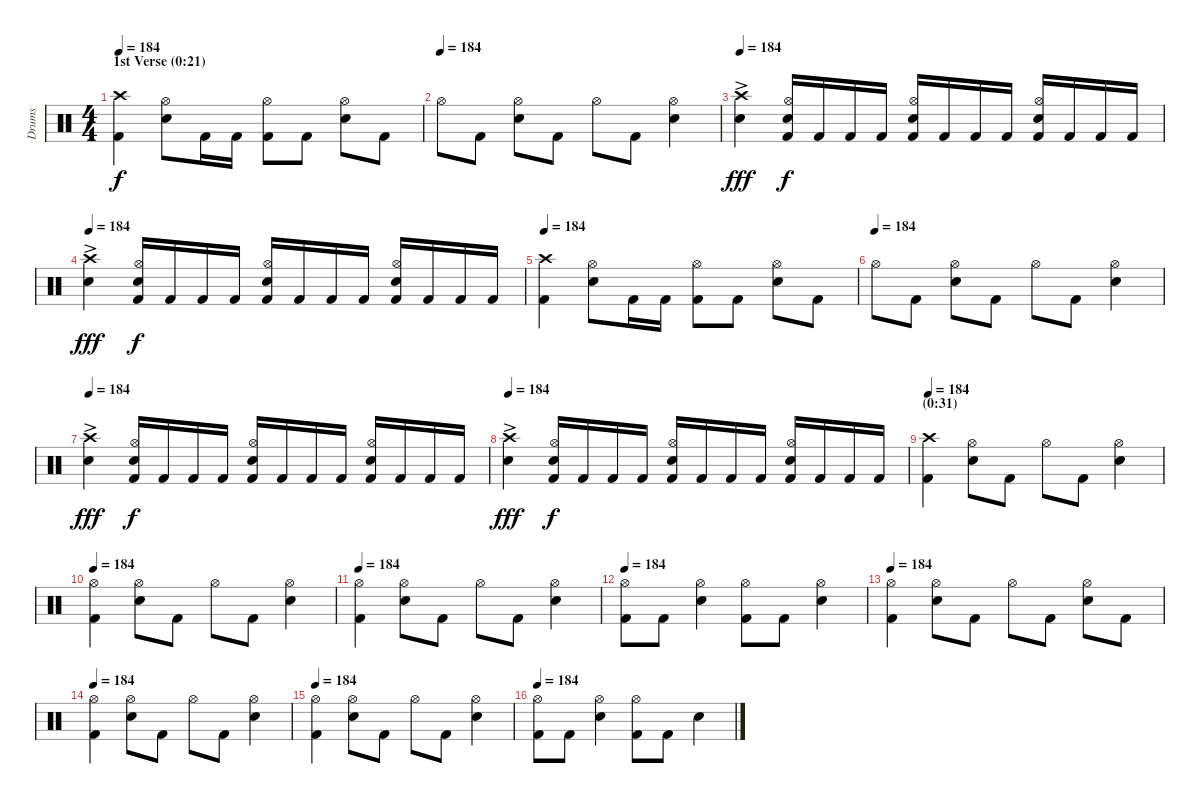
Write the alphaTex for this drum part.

\track ("Drums" "Drums") {instrument percussion}
\staff {score}
\articulation defaults
\ts (4 4)
\section ("" "1st Verse (0:21)")
\tempo 184
\clef neutral
\ks c
("Crash high (hit)" "Kick (hit) 2").4{dy f} ("Hi-Hat (open)" "Snare (hit) 2").8 "Kick (hit) 2".16 "Kick (hit) 2".16 ("Hi-Hat (open)" "Kick (hit) 2").8 "Kick (hit) 2".8 ("Hi-Hat (open)" "Snare (hit) 2").8 "Kick (hit) 2".8 |
\tempo (184)
"Hi-Hat (open)".8 "Kick (hit) 2".8 ("Hi-Hat (open)" "Snare (hit) 2").8 "Kick (hit) 2".8 "Hi-Hat (open)".8 "Kick (hit) 2".8 ("Hi-Hat (open)" "Snare (hit) 2").4 |
\tempo 184
("Crash high (hit)" "Snare (hit) 2"{ac}).4{dy fff} ("Hi-Hat (open)" "Snare (hit) 2" "Kick (hit) 2").16{dy f} "Kick (hit) 2".16 "Kick (hit) 2".16 "Kick (hit) 2".16 ("Hi-Hat (open)" "Snare (hit) 2" "Kick (hit) 2").16 "Kick (hit) 2".16 "Kick (hit) 2".16 "Kick (hit) 2".16 ("Hi-Hat (open)" "Snare (hit) 2" "Kick (hit) 2").16 "Kick (hit) 2".16 "Kick (hit) 2".16 "Kick (hit) 2".16 |
\tempo 184
("Crash high (hit)" "Snare (hit) 2"{ac}).4{dy fff} ("Hi-Hat (open)" "Snare (hit) 2" "Kick (hit) 2").16{dy f} "Kick (hit) 2".16 "Kick (hit) 2".16 "Kick (hit) 2".16 ("Hi-Hat (open)" "Snare (hit) 2" "Kick (hit) 2").16 "Kick (hit) 2".16 "Kick (hit) 2".16 "Kick (hit) 2".16 ("Hi-Hat (open)" "Snare (hit) 2" "Kick (hit) 2").16 "Kick (hit) 2".16 "Kick (hit) 2".16 "Kick (hit) 2".16 |
\tempo 184
("Crash high (hit)" "Kick (hit) 2").4 ("Hi-Hat (open)" "Snare (hit) 2").8 "Kick (hit) 2".16 "Kick (hit) 2".16 ("Hi-Hat (open)" "Kick (hit) 2").8 "Kick (hit) 2".8 ("Hi-Hat (open)" "Snare (hit) 2").8 "Kick (hit) 2".8 |
\tempo (184)
"Hi-Hat (open)".8 "Kick (hit) 2".8 ("Hi-Hat (open)" "Snare (hit) 2").8 "Kick (hit) 2".8 "Hi-Hat (open)".8 "Kick (hit) 2".8 ("Hi-Hat (open)" "Snare (hit) 2").4 |
\tempo 184
("Crash high (hit)" "Snare (hit) 2"{ac}).4{dy fff} ("Hi-Hat (open)" "Snare (hit) 2" "Kick (hit) 2").16{dy f} "Kick (hit) 2".16 "Kick (hit) 2".16 "Kick (hit) 2".16 ("Hi-Hat (open)" "Snare (hit) 2" "Kick (hit) 2").16 "Kick (hit) 2".16 "Kick (hit) 2".16 "Kick (hit) 2".16 ("Hi-Hat (open)" "Snare (hit) 2" "Kick (hit) 2").16 "Kick (hit) 2".16 "Kick (hit) 2".16 "Kick (hit) 2".16 |
\tempo 184
("Crash high (hit)" "Snare (hit) 2"{ac}).4{dy fff} ("Hi-Hat (open)" "Snare (hit) 2" "Kick (hit) 2").16{dy f} "Kick (hit) 2".16 "Kick (hit) 2".16 "Kick (hit) 2".16 ("Hi-Hat (open)" "Snare (hit) 2" "Kick (hit) 2").16 "Kick (hit) 2".16 "Kick (hit) 2".16 "Kick (hit) 2".16 ("Hi-Hat (open)" "Snare (hit) 2" "Kick (hit) 2").16 "Kick (hit) 2".16 "Kick (hit) 2".16 "Kick (hit) 2".16 |
\section ("" "(0:31)")
\tempo 184
("Crash high (hit)" "Kick (hit) 2").4 ("Hi-Hat (open)" "Snare (hit) 2").8 "Kick (hit) 2".8 "Hi-Hat (open)".8 "Kick (hit) 2".8 ("Hi-Hat (open)" "Snare (hit) 2").4 |
\tempo 184
("Hi-Hat (open)" "Kick (hit) 2").4 ("Hi-Hat (open)" "Snare (hit) 2").8 "Kick (hit) 2".8 "Hi-Hat (open)".8 "Kick (hit) 2".8 ("Hi-Hat (open)" "Snare (hit) 2").4 |
\tempo 184
("Hi-Hat (open)" "Kick (hit) 2").4 ("Hi-Hat (open)" "Snare (hit) 2").8 "Kick (hit) 2".8 "Hi-Hat (open)".8 "Kick (hit) 2".8 ("Hi-Hat (open)" "Snare (hit) 2").4 |
\tempo 184
("Hi-Hat (open)" "Kick (hit) 2").8 "Kick (hit) 2".8 ("Hi-Hat (open)" "Snare (hit) 2").4 ("Hi-Hat (open)" "Kick (hit) 2").8 "Kick (hit) 2".8 ("Hi-Hat (open)" "Snare (hit) 2").4 |
\tempo 184
("Hi-Hat (open)" "Kick (hit) 2").4 ("Hi-Hat (open)" "Snare (hit) 2").8 "Kick (hit) 2".8 "Hi-Hat (open)".8 "Kick (hit) 2".8 ("Hi-Hat (open)" "Snare (hit) 2").8 "Kick (hit) 2".8 |
\tempo 184
("Hi-Hat (open)" "Kick (hit) 2").4 ("Hi-Hat (open)" "Snare (hit) 2").8 "Kick (hit) 2".8 "Hi-Hat (open)".8 "Kick (hit) 2".8 ("Hi-Hat (open)" "Snare (hit) 2").4 |
\tempo 184
("Hi-Hat (open)" "Kick (hit) 2").4 ("Hi-Hat (open)" "Snare (hit) 2").8 "Kick (hit) 2".8 "Hi-Hat (open)".8 "Kick (hit) 2".8 ("Hi-Hat (open)" "Snare (hit) 2").4 |
\tempo 184
("Hi-Hat (open)" "Kick (hit) 2").8 "Kick (hit) 2".8 ("Hi-Hat (open)" "Snare (hit) 2").4 ("Hi-Hat (open)" "Kick (hit) 2").8 "Kick (hit) 2".8 "Snare (hit) 2".4
